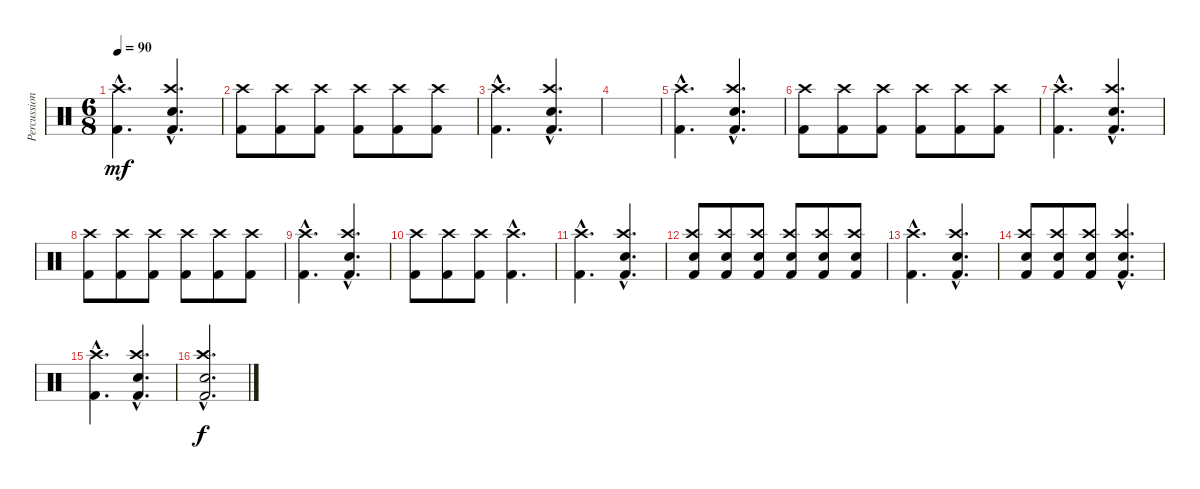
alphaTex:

\track ("Percussion" "Percussion") {instrument percussion}
\staff {score}
\articulation defaults
\ts (6 8)
\tempo 90
\clef neutral
\ks c
("Kick (hit) 2"{hac} "Crash high (hit)"{hac}).4{d dy mf} ("Kick (hit) 2"{hac} "Snare (hit) 2"{hac} "Crash high (hit)"{hac}).4{d} |
("Kick (hit) 2" "Crash high (hit)").8 ("Kick (hit) 2" "Crash high (hit)").8 ("Kick (hit) 2" "Crash high (hit)").8 ("Kick (hit) 2" "Crash high (hit)").8 ("Kick (hit) 2" "Crash high (hit)").8 ("Kick (hit) 2" "Crash high (hit)").8 |
("Kick (hit) 2"{hac} "Crash high (hit)"{hac}).4{d} ("Kick (hit) 2"{hac} "Snare (hit) 2"{hac} "Crash high (hit)"{hac}).4{d} |
|
("Kick (hit) 2"{hac} "Crash high (hit)"{hac}).4{d} ("Kick (hit) 2"{hac} "Snare (hit) 2"{hac} "Crash high (hit)"{hac}).4{d} |
("Kick (hit) 2" "Crash high (hit)").8 ("Kick (hit) 2" "Crash high (hit)").8 ("Kick (hit) 2" "Crash high (hit)").8 ("Kick (hit) 2" "Crash high (hit)").8 ("Kick (hit) 2" "Crash high (hit)").8 ("Kick (hit) 2" "Crash high (hit)").8 |
("Kick (hit) 2"{hac} "Crash high (hit)"{hac}).4{d} ("Kick (hit) 2"{hac} "Snare (hit) 2"{hac} "Crash high (hit)"{hac}).4{d} |
("Kick (hit) 2" "Crash high (hit)").8 ("Kick (hit) 2" "Crash high (hit)").8 ("Kick (hit) 2" "Crash high (hit)").8 ("Kick (hit) 2" "Crash high (hit)").8 ("Kick (hit) 2" "Crash high (hit)").8 ("Kick (hit) 2" "Crash high (hit)").8 |
("Kick (hit) 2"{hac} "Crash high (hit)"{hac}).4{d} ("Kick (hit) 2"{hac} "Snare (hit) 2"{hac} "Crash high (hit)"{hac}).4{d} |
("Kick (hit) 2" "Crash high (hit)").8 ("Kick (hit) 2" "Crash high (hit)").8 ("Kick (hit) 2" "Crash high (hit)").8 ("Kick (hit) 2"{hac} "Crash high (hit)"{hac}).4{d} |
("Kick (hit) 2"{hac} "Crash high (hit)"{hac}).4{d} ("Kick (hit) 2"{hac} "Snare (hit) 2"{hac} "Crash high (hit)"{hac}).4{d} |
("Kick (hit) 2" "Crash high (hit)" "Snare (hit) 2").8 ("Kick (hit) 2" "Crash high (hit)" "Snare (hit) 2").8 ("Kick (hit) 2" "Crash high (hit)" "Snare (hit) 2").8 ("Kick (hit) 2" "Crash high (hit)" "Snare (hit) 2").8 ("Kick (hit) 2" "Crash high (hit)" "Snare (hit) 2").8 ("Kick (hit) 2" "Crash high (hit)" "Snare (hit) 2").8 |
("Kick (hit) 2"{hac} "Crash high (hit)"{hac}).4{d} ("Kick (hit) 2"{hac} "Snare (hit) 2"{hac} "Crash high (hit)"{hac}).4{d} |
("Kick (hit) 2" "Crash high (hit)" "Snare (hit) 2").8 ("Kick (hit) 2" "Crash high (hit)" "Snare (hit) 2").8 ("Kick (hit) 2" "Crash high (hit)" "Snare (hit) 2").8 ("Kick (hit) 2"{hac} "Crash high (hit)"{hac} "Snare (hit) 2"{hac}).4{d} |
("Kick (hit) 2"{hac} "Crash high (hit)"{hac}).4{d} ("Kick (hit) 2"{hac} "Snare (hit) 2"{hac} "Crash high (hit)"{hac}).4{d} |
("Kick (hit) 2"{hac} "Crash high (hit)"{hac} "Snare (hit) 2"{hac}).2{d dy f}
